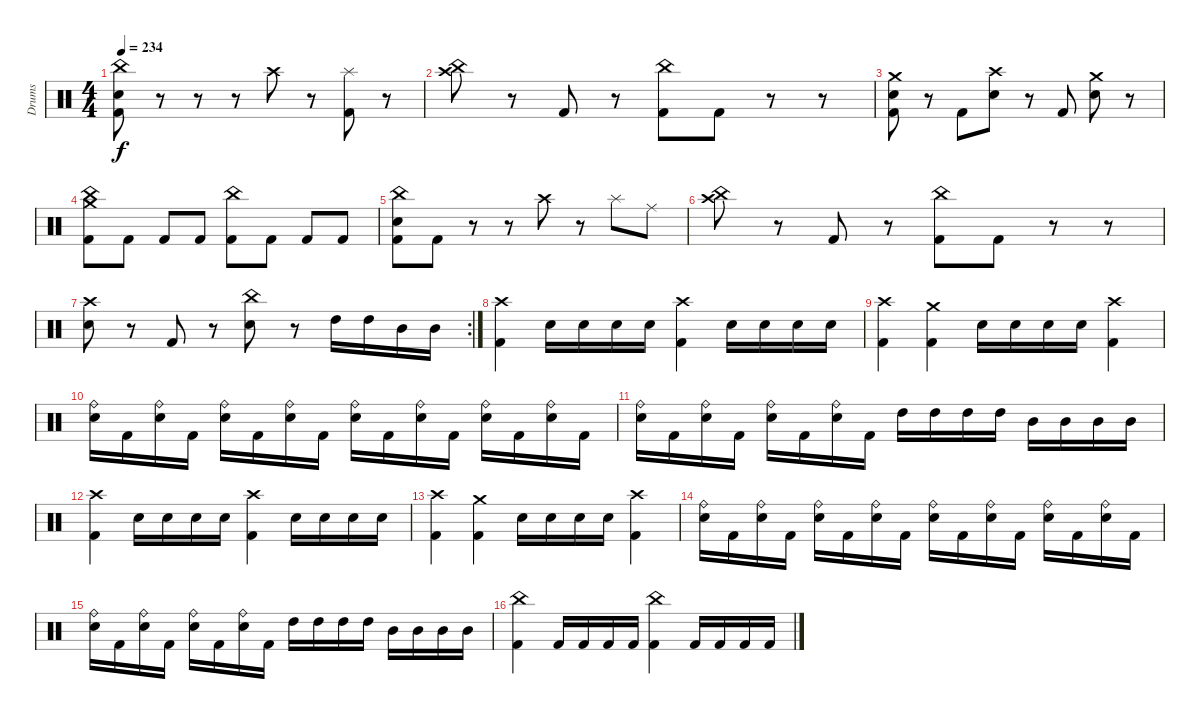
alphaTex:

\track ("Drums" "Drums") {instrument percussion}
\staff {score}
\articulation defaults
\ts (4 4)
\tempo 234
\clef neutral
\ks c
("China (hit)" "Electric Snare (hit)" "Kick (hit) 2").8{dy f} r.8 r.8 r.8 "Crash high (hit)".8 r.8 ("Splash (hit)" "Kick (hit) 2").8 r.8 |
("China (hit)" "Crash high (hit)").8 r.8 "Kick (hit) 2".8 r.8 ("China (hit)" "Kick (hit) 2").8 "Kick (hit) 2".8 r.8 r.8 |
("Crash medium (hit)" "Electric Snare (hit)" "Kick (hit) 2").8 r.8 "Kick (hit) 2".8 ("Crash high (hit)" "Electric Snare (hit)").8 r.8 "Kick (hit) 2".8 ("Crash medium (hit)" "Electric Snare (hit)").8 r.8 |
("Crash medium (hit)" "China (hit)" "Kick (hit) 2").8 "Kick (hit) 2".8 "Kick (hit) 2".8 "Kick (hit) 2".8 ("China (hit)" "Kick (hit) 2").8 "Kick (hit) 2".8 "Kick (hit) 2".8 "Kick (hit) 2".8 |
("China (hit)" "Electric Snare (hit)" "Kick (hit) 2").8 "Kick (hit) 2".8 r.8 r.8 "Crash high (hit)".8 r.8 "Splash (hit)".8 "Ride (middle)".8 |
("China (hit)" "Crash high (hit)").8 r.8 "Kick (hit) 2".8 r.8 ("China (hit)" "Kick (hit) 2").8 "Kick (hit) 2".8 r.8 r.8 |
\rc 2
("Crash high (hit)" "Electric Snare (hit)").8 r.8 "Kick (hit) 2".8 r.8 ("China (hit)" "Electric Snare (hit)").8 r.8 "High Tom (hit)".16 "High Tom (hit)".16 "Mid Tom (hit)".16 "Mid Tom (hit)".16 |
("Crash high (hit)" "Kick (hit) 2").4 "Electric Snare (hit)".16 "Electric Snare (hit)".16 "Electric Snare (hit)".16 "Electric Snare (hit)".16 ("Crash high (hit)" "Kick (hit) 2").4 "Electric Snare (hit)".16 "Electric Snare (hit)".16 "Electric Snare (hit)".16 "Electric Snare (hit)".16 |
("Crash high (hit)" "Kick (hit) 2").4 ("Crash medium (hit)" "Kick (hit) 2").4 "Electric Snare (hit)".16 "Electric Snare (hit)".16 "Electric Snare (hit)".16 "Electric Snare (hit)".16 ("Crash high (hit)" "Kick (hit) 2").4 |
("Ride (bell)" "Electric Snare (hit)").16 "Kick (hit) 2".16 ("Ride (bell)" "Electric Snare (hit)").16 "Kick (hit) 2".16 ("Ride (bell)" "Electric Snare (hit)").16 "Kick (hit) 2".16 ("Ride (bell)" "Electric Snare (hit)").16 "Kick (hit) 2".16 ("Ride (bell)" "Electric Snare (hit)").16 "Kick (hit) 2".16 ("Ride (bell)" "Electric Snare (hit)").16 "Kick (hit) 2".16 ("Ride (bell)" "Electric Snare (hit)").16 "Kick (hit) 2".16 ("Ride (bell)" "Electric Snare (hit)").16 "Kick (hit) 2".16 |
("Ride (bell)" "Electric Snare (hit)").16 "Kick (hit) 2".16 ("Ride (bell)" "Electric Snare (hit)").16 "Kick (hit) 2".16 ("Ride (bell)" "Electric Snare (hit)").16 "Kick (hit) 2".16 ("Ride (bell)" "Electric Snare (hit)").16 "Kick (hit) 2".16 "High Tom (hit)".16 "High Tom (hit)".16 "High Tom (hit)".16 "High Tom (hit)".16 "Mid Tom (hit)".16 "Mid Tom (hit)".16 "Mid Tom (hit)".16 "Mid Tom (hit)".16 |
("Crash high (hit)" "Kick (hit) 2").4 "Electric Snare (hit)".16 "Electric Snare (hit)".16 "Electric Snare (hit)".16 "Electric Snare (hit)".16 ("Crash high (hit)" "Kick (hit) 2").4 "Electric Snare (hit)".16 "Electric Snare (hit)".16 "Electric Snare (hit)".16 "Electric Snare (hit)".16 |
("Crash high (hit)" "Kick (hit) 2").4 ("Crash medium (hit)" "Kick (hit) 2").4 "Electric Snare (hit)".16 "Electric Snare (hit)".16 "Electric Snare (hit)".16 "Electric Snare (hit)".16 ("Crash high (hit)" "Kick (hit) 2").4 |
("Ride (bell)" "Electric Snare (hit)").16 "Kick (hit) 2".16 ("Ride (bell)" "Electric Snare (hit)").16 "Kick (hit) 2".16 ("Ride (bell)" "Electric Snare (hit)").16 "Kick (hit) 2".16 ("Ride (bell)" "Electric Snare (hit)").16 "Kick (hit) 2".16 ("Ride (bell)" "Electric Snare (hit)").16 "Kick (hit) 2".16 ("Ride (bell)" "Electric Snare (hit)").16 "Kick (hit) 2".16 ("Ride (bell)" "Electric Snare (hit)").16 "Kick (hit) 2".16 ("Ride (bell)" "Electric Snare (hit)").16 "Kick (hit) 2".16 |
("Ride (bell)" "Electric Snare (hit)").16 "Kick (hit) 2".16 ("Ride (bell)" "Electric Snare (hit)").16 "Kick (hit) 2".16 ("Ride (bell)" "Electric Snare (hit)").16 "Kick (hit) 2".16 ("Ride (bell)" "Electric Snare (hit)").16 "Kick (hit) 2".16 "High Tom (hit)".16 "High Tom (hit)".16 "High Tom (hit)".16 "High Tom (hit)".16 "Mid Tom (hit)".16 "Mid Tom (hit)".16 "Mid Tom (hit)".16 "Mid Tom (hit)".16 |
("China (hit)" "Kick (hit) 2").4 "Kick (hit) 2".16 "Kick (hit) 2".16 "Kick (hit) 2".16 "Kick (hit) 2".16 ("China (hit)" "Kick (hit) 2").4 "Kick (hit) 2".16 "Kick (hit) 2".16 "Kick (hit) 2".16 "Kick (hit) 2".16
